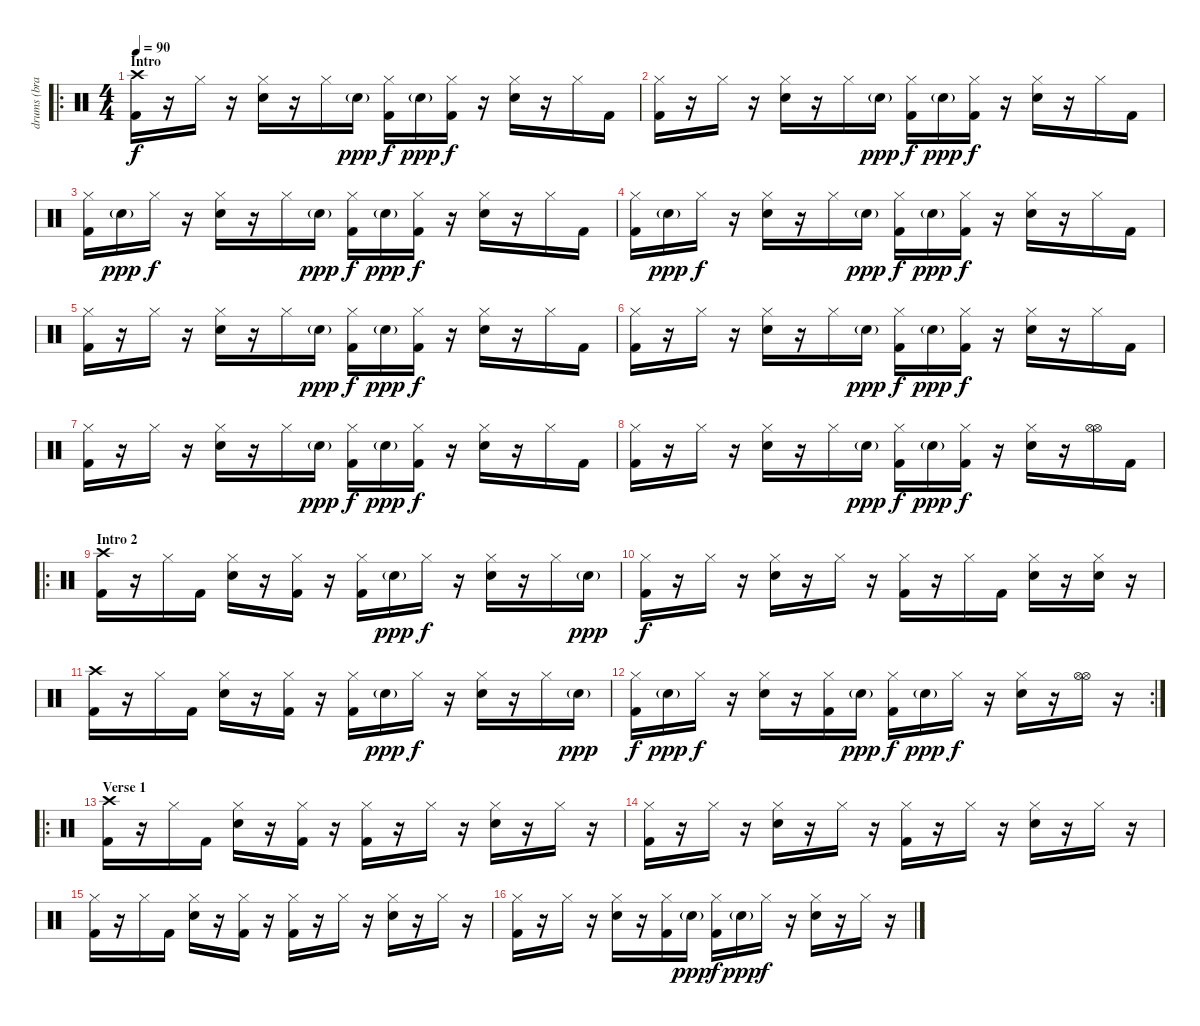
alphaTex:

\track ("drums (brad wilk)" "drums (bra") {instrument percussion}
\staff {score}
\articulation defaults
\ro
\ts (4 4)
\section ("" "Intro")
\tempo 90
\clef neutral
\ks c
("Crash high (hit)" "Kick (hit) 2").16{dy f} r.16 "Hi-Hat (closed)".16 r.16 ("Hi-Hat (closed)" "Electric Snare (hit)").16 r.16 "Hi-Hat (closed)".16 "Electric Snare (hit)"{g}.16{dy ppp} ("Hi-Hat (closed)" "Kick (hit) 2").16{dy f} "Electric Snare (hit)"{g}.16{dy ppp} ("Hi-Hat (closed)" "Kick (hit) 2").16{dy f} r.16 ("Hi-Hat (closed)" "Electric Snare (hit)").16 r.16 "Hi-Hat (closed)".16 "Kick (hit) 2".16 |
("Hi-Hat (closed)" "Kick (hit) 2").16 r.16 "Hi-Hat (closed)".16 r.16 ("Hi-Hat (closed)" "Electric Snare (hit)").16 r.16 "Hi-Hat (closed)".16 "Electric Snare (hit)"{g}.16{dy ppp} ("Hi-Hat (closed)" "Kick (hit) 2").16{dy f} "Electric Snare (hit)"{g}.16{dy ppp} ("Hi-Hat (closed)" "Kick (hit) 2").16{dy f} r.16 ("Hi-Hat (closed)" "Electric Snare (hit)").16 r.16 "Hi-Hat (closed)".16 "Kick (hit) 2".16 |
("Hi-Hat (closed)" "Kick (hit) 2").16 "Electric Snare (hit)"{g}.16{dy ppp} "Hi-Hat (closed)".16{dy f} r.16 ("Hi-Hat (closed)" "Electric Snare (hit)").16 r.16 "Hi-Hat (closed)".16 "Electric Snare (hit)"{g}.16{dy ppp} ("Hi-Hat (closed)" "Kick (hit) 2").16{dy f} "Electric Snare (hit)"{g}.16{dy ppp} ("Hi-Hat (closed)" "Kick (hit) 2").16{dy f} r.16 ("Hi-Hat (closed)" "Electric Snare (hit)").16 r.16 "Hi-Hat (closed)".16 "Kick (hit) 2".16 |
("Hi-Hat (closed)" "Kick (hit) 2").16 "Electric Snare (hit)"{g}.16{dy ppp} "Hi-Hat (closed)".16{dy f} r.16 ("Hi-Hat (closed)" "Electric Snare (hit)").16 r.16 "Hi-Hat (closed)".16 "Electric Snare (hit)"{g}.16{dy ppp} ("Hi-Hat (closed)" "Kick (hit) 2").16{dy f} "Electric Snare (hit)"{g}.16{dy ppp} ("Hi-Hat (closed)" "Kick (hit) 2").16{dy f} r.16 ("Hi-Hat (closed)" "Electric Snare (hit)").16 r.16 "Hi-Hat (closed)".16 "Kick (hit) 2".16 |
("Hi-Hat (closed)" "Kick (hit) 2").16 r.16 "Hi-Hat (closed)".16 r.16 ("Hi-Hat (closed)" "Electric Snare (hit)").16 r.16 "Hi-Hat (closed)".16 "Electric Snare (hit)"{g}.16{dy ppp} ("Hi-Hat (closed)" "Kick (hit) 2").16{dy f} "Electric Snare (hit)"{g}.16{dy ppp} ("Hi-Hat (closed)" "Kick (hit) 2").16{dy f} r.16 ("Hi-Hat (closed)" "Electric Snare (hit)").16 r.16 "Hi-Hat (closed)".16 "Kick (hit) 2".16 |
("Hi-Hat (closed)" "Kick (hit) 2").16 r.16 "Hi-Hat (closed)".16 r.16 ("Hi-Hat (closed)" "Electric Snare (hit)").16 r.16 "Hi-Hat (closed)".16 "Electric Snare (hit)"{g}.16{dy ppp} ("Hi-Hat (closed)" "Kick (hit) 2").16{dy f} "Electric Snare (hit)"{g}.16{dy ppp} ("Hi-Hat (closed)" "Kick (hit) 2").16{dy f} r.16 ("Hi-Hat (closed)" "Electric Snare (hit)").16 r.16 "Hi-Hat (closed)".16 "Kick (hit) 2".16 |
("Hi-Hat (closed)" "Kick (hit) 2").16 r.16 "Hi-Hat (closed)".16 r.16 ("Hi-Hat (closed)" "Electric Snare (hit)").16 r.16 "Hi-Hat (closed)".16 "Electric Snare (hit)"{g}.16{dy ppp} ("Hi-Hat (closed)" "Kick (hit) 2").16{dy f} "Electric Snare (hit)"{g}.16{dy ppp} ("Hi-Hat (closed)" "Kick (hit) 2").16{dy f} r.16 ("Hi-Hat (closed)" "Electric Snare (hit)").16 r.16 "Hi-Hat (closed)".16 "Kick (hit) 2".16 |
("Hi-Hat (closed)" "Kick (hit) 2").16 r.16 "Hi-Hat (closed)".16 r.16 ("Hi-Hat (closed)" "Electric Snare (hit)").16 r.16 "Hi-Hat (closed)".16 "Electric Snare (hit)"{g}.16{dy ppp} ("Hi-Hat (closed)" "Kick (hit) 2").16{dy f} "Electric Snare (hit)"{g}.16{dy ppp} ("Hi-Hat (closed)" "Kick (hit) 2").16{dy f} r.16 ("Hi-Hat (closed)" "Electric Snare (hit)").16 r.16 ("Hi-Hat (open)" "Hi-Hat (open)").16 "Kick (hit) 2".16 |
\ro
\section ("" "Intro 2")
("Crash high (hit)" "Kick (hit) 2").16 r.16 "Hi-Hat (closed)".16 "Kick (hit) 2".16 ("Hi-Hat (closed)" "Electric Snare (hit)").16 r.16 ("Hi-Hat (closed)" "Kick (hit) 2").16 r.16 ("Hi-Hat (closed)" "Kick (hit) 2").16 "Electric Snare (hit)"{g}.16{dy ppp} "Hi-Hat (closed)".16{dy f} r.16 ("Hi-Hat (closed)" "Electric Snare (hit)").16 r.16 "Hi-Hat (closed)".16 "Electric Snare (hit)"{g}.16{dy ppp} |
("Hi-Hat (closed)" "Kick (hit) 2").16{dy f} r.16 "Hi-Hat (closed)".16 r.16 ("Hi-Hat (closed)" "Electric Snare (hit)").16 r.16 "Hi-Hat (closed)".16 r.16 ("Hi-Hat (closed)" "Kick (hit) 2").16 r.16 "Hi-Hat (closed)".16 "Kick (hit) 2".16 ("Hi-Hat (closed)" "Electric Snare (hit)").16 r.16 ("Hi-Hat (closed)" "Electric Snare (hit)").16 r.16 |
("Crash high (hit)" "Kick (hit) 2").16 r.16 "Hi-Hat (closed)".16 "Kick (hit) 2".16 ("Hi-Hat (closed)" "Electric Snare (hit)").16 r.16 ("Hi-Hat (closed)" "Kick (hit) 2").16 r.16 ("Hi-Hat (closed)" "Kick (hit) 2").16 "Electric Snare (hit)"{g}.16{dy ppp} "Hi-Hat (closed)".16{dy f} r.16 ("Hi-Hat (closed)" "Electric Snare (hit)").16 r.16 "Hi-Hat (closed)".16 "Electric Snare (hit)"{g}.16{dy ppp} |
\rc 2
("Hi-Hat (closed)" "Kick (hit) 2").16{dy f} "Electric Snare (hit)"{g}.16{dy ppp} "Hi-Hat (closed)".16{dy f} r.16 ("Hi-Hat (closed)" "Electric Snare (hit)").16 r.16 ("Hi-Hat (closed)" "Kick (hit) 2").16 "Electric Snare (hit)"{g}.16{dy ppp} ("Hi-Hat (closed)" "Kick (hit) 2").16{dy f} "Electric Snare (hit)"{g}.16{dy ppp} "Hi-Hat (closed)".16{dy f} r.16 ("Hi-Hat (closed)" "Electric Snare (hit)").16 r.16 ("Hi-Hat (open)" "Hi-Hat (open)").16 r.16 |
\ro
\section ("" "Verse 1")
("Crash high (hit)" "Kick (hit) 2").16 r.16 "Hi-Hat (closed)".16 "Kick (hit) 2".16 ("Hi-Hat (closed)" "Electric Snare (hit)").16 r.16 ("Hi-Hat (closed)" "Kick (hit) 2").16 r.16 ("Hi-Hat (closed)" "Kick (hit) 2").16 r.16 "Hi-Hat (closed)".16 r.16 ("Hi-Hat (closed)" "Electric Snare (hit)").16 r.16 "Hi-Hat (closed)".16 r.16 |
("Hi-Hat (closed)" "Kick (hit) 2").16 r.16 "Hi-Hat (closed)".16 r.16 ("Hi-Hat (closed)" "Electric Snare (hit)").16 r.16 "Hi-Hat (closed)".16 r.16 ("Hi-Hat (closed)" "Kick (hit) 2").16 r.16 "Hi-Hat (closed)".16 r.16 ("Hi-Hat (closed)" "Electric Snare (hit)").16 r.16 "Hi-Hat (closed)".16 r.16 |
("Hi-Hat (closed)" "Kick (hit) 2").16 r.16 "Hi-Hat (closed)".16 "Kick (hit) 2".16 ("Hi-Hat (closed)" "Electric Snare (hit)").16 r.16 ("Hi-Hat (closed)" "Kick (hit) 2").16 r.16 ("Hi-Hat (closed)" "Kick (hit) 2").16 r.16 "Hi-Hat (closed)".16 r.16 ("Hi-Hat (closed)" "Electric Snare (hit)").16 r.16 "Hi-Hat (closed)".16 r.16 |
("Hi-Hat (closed)" "Kick (hit) 2").16 r.16 "Hi-Hat (closed)".16 r.16 ("Hi-Hat (closed)" "Electric Snare (hit)").16 r.16 ("Hi-Hat (closed)" "Kick (hit) 2").16 "Electric Snare (hit)"{g}.16{dy ppp} ("Hi-Hat (closed)" "Kick (hit) 2").16{dy f} "Electric Snare (hit)"{g}.16{dy ppp} "Hi-Hat (closed)".16{dy f} r.16 ("Hi-Hat (closed)" "Electric Snare (hit)").16 r.16 "Hi-Hat (closed)".16 r.16
